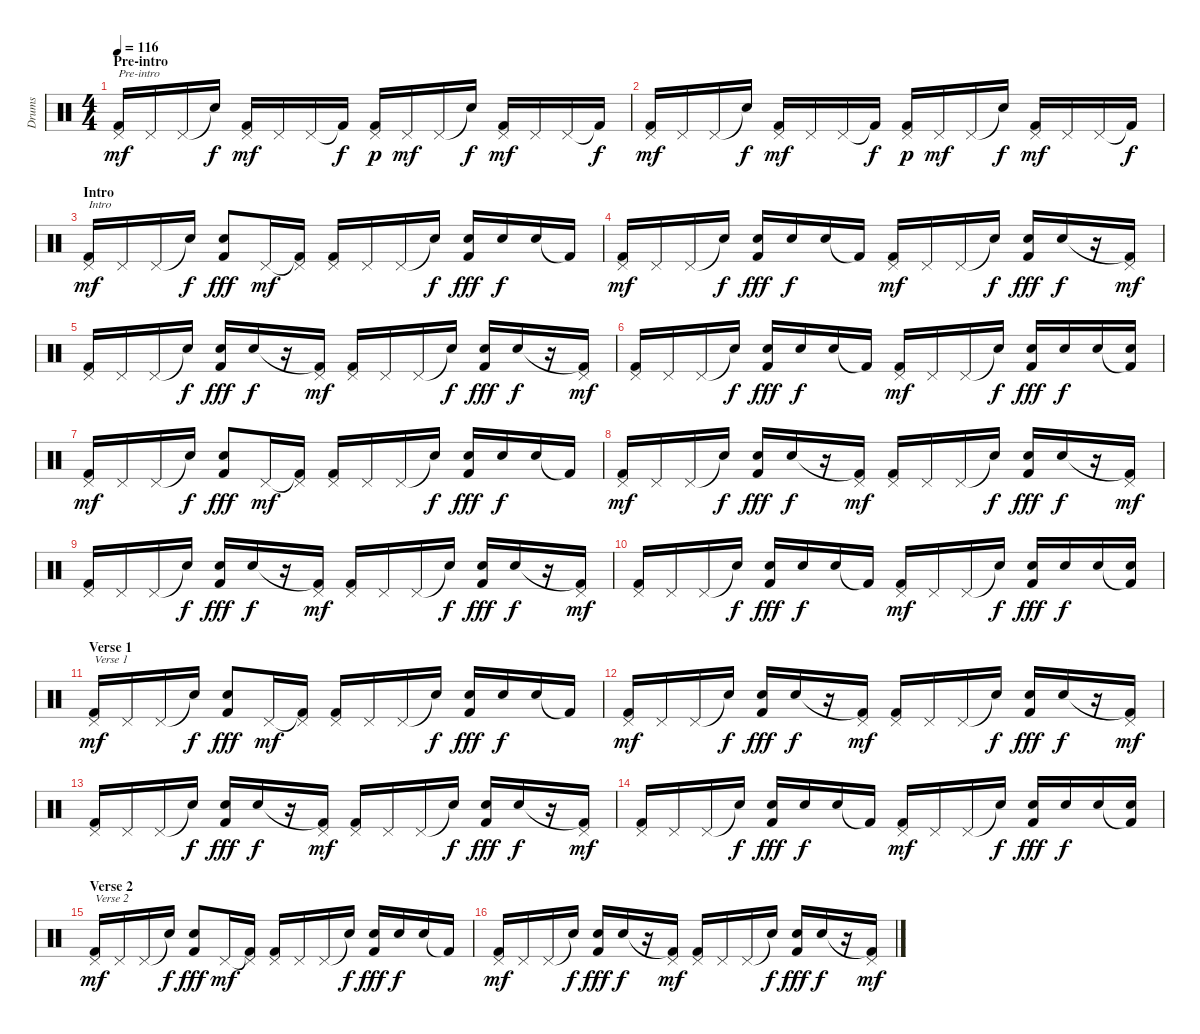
\track ("Drums" "Drums") {instrument percussion}
\staff {score}
\articulation defaults
\ts (4 4)
\section ("" "Pre-intro")
\tempo 116
\clef neutral
\ks c
("Kick (hit) 2" "Pedal Hi-Hat (hit)").16{txt "Pre-intro" dy mf} "Pedal Hi-Hat (hit)".16 "Pedal Hi-Hat (hit)".16 "Snare (hit)"{t}.16{dy f} ("Kick (hit) 2" "Pedal Hi-Hat (hit)").16{dy mf} "Pedal Hi-Hat (hit)".16 "Pedal Hi-Hat (hit)".16 "Kick (hit) 2"{t}.16{dy f} ("Kick (hit) 2" "Pedal Hi-Hat (hit)").16{dy p} "Pedal Hi-Hat (hit)".16{dy mf} "Pedal Hi-Hat (hit)".16 "Snare (hit)"{t}.16{dy f} ("Kick (hit) 2" "Pedal Hi-Hat (hit)").16{dy mf} "Pedal Hi-Hat (hit)".16 "Pedal Hi-Hat (hit)".16 "Kick (hit) 2"{t}.16{dy f} |
("Kick (hit) 2" "Pedal Hi-Hat (hit)").16{dy mf} "Pedal Hi-Hat (hit)".16 "Pedal Hi-Hat (hit)".16 "Snare (hit)"{t}.16{dy f} ("Kick (hit) 2" "Pedal Hi-Hat (hit)").16{dy mf} "Pedal Hi-Hat (hit)".16 "Pedal Hi-Hat (hit)".16 "Kick (hit) 2"{t}.16{dy f} ("Kick (hit) 2" "Pedal Hi-Hat (hit)").16{dy p} "Pedal Hi-Hat (hit)".16{dy mf} "Pedal Hi-Hat (hit)".16 "Snare (hit)"{t}.16{dy f} ("Kick (hit) 2" "Pedal Hi-Hat (hit)").16{dy mf} "Pedal Hi-Hat (hit)".16 "Pedal Hi-Hat (hit)".16 "Kick (hit) 2"{t}.16{dy f} |
\section ("" "Intro")
("Kick (hit) 2" "Pedal Hi-Hat (hit)").16{txt "Intro" dy mf} "Pedal Hi-Hat (hit)".16 "Pedal Hi-Hat (hit)".16 "Snare (hit)"{t}.16{dy f} ("Kick (hit) 2" "Electric Snare (hit)").8{dy fff} "Pedal Hi-Hat (hit)".16{dy mf} ("Kick (hit) 2"{t} "Pedal Hi-Hat (hit)").16 ("Kick (hit) 2" "Pedal Hi-Hat (hit)").16 "Pedal Hi-Hat (hit)".16 "Pedal Hi-Hat (hit)".16 "Snare (hit)"{t}.16{dy f} ("Kick (hit) 2" "Electric Snare (hit)").16{dy fff} "Electric Snare (hit)".16{dy f} "Electric Snare (hit)".16 "Kick (hit) 2"{t}.16 |
("Kick (hit) 2" "Pedal Hi-Hat (hit)").16{dy mf} "Pedal Hi-Hat (hit)".16 "Pedal Hi-Hat (hit)".16 "Snare (hit)"{t}.16{dy f} ("Kick (hit) 2" "Electric Snare (hit)").16{dy fff} "Electric Snare (hit)".16{dy f} "Electric Snare (hit)".16 "Kick (hit) 2"{t}.16 ("Kick (hit) 2" "Pedal Hi-Hat (hit)").16{dy mf} "Pedal Hi-Hat (hit)".16 "Pedal Hi-Hat (hit)".16 "Snare (hit)"{t}.16{dy f} ("Kick (hit) 2" "Electric Snare (hit)").16{dy fff} "Electric Snare (hit)".16{dy f} r.16 ("Kick (hit) 2"{t} "Pedal Hi-Hat (hit)").16{dy mf} |
("Kick (hit) 2" "Pedal Hi-Hat (hit)").16 "Pedal Hi-Hat (hit)".16 "Pedal Hi-Hat (hit)".16 "Snare (hit)"{t}.16{dy f} ("Kick (hit) 2" "Electric Snare (hit)").16{dy fff} "Electric Snare (hit)".16{dy f} r.16 ("Kick (hit) 2"{t} "Pedal Hi-Hat (hit)").16{dy mf} ("Kick (hit) 2" "Pedal Hi-Hat (hit)").16 "Pedal Hi-Hat (hit)".16 "Pedal Hi-Hat (hit)".16 "Snare (hit)"{t}.16{dy f} ("Kick (hit) 2" "Electric Snare (hit)").16{dy fff} "Electric Snare (hit)".16{dy f} r.16 ("Kick (hit) 2"{t} "Pedal Hi-Hat (hit)").16{dy mf} |
("Kick (hit) 2" "Pedal Hi-Hat (hit)").16 "Pedal Hi-Hat (hit)".16 "Pedal Hi-Hat (hit)".16 "Snare (hit)"{t}.16{dy f} ("Kick (hit) 2" "Electric Snare (hit)").16{dy fff} "Electric Snare (hit)".16{dy f} "Electric Snare (hit)".16 "Kick (hit) 2"{t}.16 ("Kick (hit) 2" "Pedal Hi-Hat (hit)").16{dy mf} "Pedal Hi-Hat (hit)".16 "Pedal Hi-Hat (hit)".16 "Snare (hit)"{t}.16{dy f} ("Kick (hit) 2" "Electric Snare (hit)").16{dy fff} "Electric Snare (hit)".16{dy f} "Electric Snare (hit)".16 ("Kick (hit) 2"{t} "Electric Snare (hit)").16 |
("Kick (hit) 2" "Pedal Hi-Hat (hit)").16{dy mf} "Pedal Hi-Hat (hit)".16 "Pedal Hi-Hat (hit)".16 "Snare (hit)"{t}.16{dy f} ("Kick (hit) 2" "Electric Snare (hit)").8{dy fff} "Pedal Hi-Hat (hit)".16{dy mf} ("Kick (hit) 2"{t} "Pedal Hi-Hat (hit)").16 ("Kick (hit) 2" "Pedal Hi-Hat (hit)").16 "Pedal Hi-Hat (hit)".16 "Pedal Hi-Hat (hit)".16 "Snare (hit)"{t}.16{dy f} ("Kick (hit) 2" "Electric Snare (hit)").16{dy fff} "Electric Snare (hit)".16{dy f} "Electric Snare (hit)".16 "Kick (hit) 2"{t}.16 |
("Kick (hit) 2" "Pedal Hi-Hat (hit)").16{dy mf} "Pedal Hi-Hat (hit)".16 "Pedal Hi-Hat (hit)".16 "Snare (hit)"{t}.16{dy f} ("Kick (hit) 2" "Electric Snare (hit)").16{dy fff} "Electric Snare (hit)".16{dy f} r.16 ("Kick (hit) 2"{t} "Pedal Hi-Hat (hit)").16{dy mf} ("Kick (hit) 2" "Pedal Hi-Hat (hit)").16 "Pedal Hi-Hat (hit)".16 "Pedal Hi-Hat (hit)".16 "Snare (hit)"{t}.16{dy f} ("Kick (hit) 2" "Electric Snare (hit)").16{dy fff} "Electric Snare (hit)".16{dy f} r.16 ("Kick (hit) 2"{t} "Pedal Hi-Hat (hit)").16{dy mf} |
("Kick (hit) 2" "Pedal Hi-Hat (hit)").16 "Pedal Hi-Hat (hit)".16 "Pedal Hi-Hat (hit)".16 "Snare (hit)"{t}.16{dy f} ("Kick (hit) 2" "Electric Snare (hit)").16{dy fff} "Electric Snare (hit)".16{dy f} r.16 ("Kick (hit) 2"{t} "Pedal Hi-Hat (hit)").16{dy mf} ("Kick (hit) 2" "Pedal Hi-Hat (hit)").16 "Pedal Hi-Hat (hit)".16 "Pedal Hi-Hat (hit)".16 "Snare (hit)"{t}.16{dy f} ("Kick (hit) 2" "Electric Snare (hit)").16{dy fff} "Electric Snare (hit)".16{dy f} r.16 ("Kick (hit) 2"{t} "Pedal Hi-Hat (hit)").16{dy mf} |
("Kick (hit) 2" "Pedal Hi-Hat (hit)").16 "Pedal Hi-Hat (hit)".16 "Pedal Hi-Hat (hit)".16 "Snare (hit)"{t}.16{dy f} ("Kick (hit) 2" "Electric Snare (hit)").16{dy fff} "Electric Snare (hit)".16{dy f} "Electric Snare (hit)".16 "Kick (hit) 2"{t}.16 ("Kick (hit) 2" "Pedal Hi-Hat (hit)").16{dy mf} "Pedal Hi-Hat (hit)".16 "Pedal Hi-Hat (hit)".16 "Snare (hit)"{t}.16{dy f} ("Kick (hit) 2" "Electric Snare (hit)").16{dy fff} "Electric Snare (hit)".16{dy f} "Electric Snare (hit)".16 ("Kick (hit) 2"{t} "Electric Snare (hit)").16 |
\section ("" "Verse 1")
("Kick (hit) 2" "Pedal Hi-Hat (hit)").16{txt "Verse 1" dy mf} "Pedal Hi-Hat (hit)".16 "Pedal Hi-Hat (hit)".16 "Snare (hit)"{t}.16{dy f} ("Kick (hit) 2" "Electric Snare (hit)").8{dy fff} "Pedal Hi-Hat (hit)".16{dy mf} ("Kick (hit) 2"{t} "Pedal Hi-Hat (hit)").16 ("Kick (hit) 2" "Pedal Hi-Hat (hit)").16 "Pedal Hi-Hat (hit)".16 "Pedal Hi-Hat (hit)".16 "Snare (hit)"{t}.16{dy f} ("Kick (hit) 2" "Electric Snare (hit)").16{dy fff} "Electric Snare (hit)".16{dy f} "Electric Snare (hit)".16 "Kick (hit) 2"{t}.16 |
("Kick (hit) 2" "Pedal Hi-Hat (hit)").16{dy mf} "Pedal Hi-Hat (hit)".16 "Pedal Hi-Hat (hit)".16 "Snare (hit)"{t}.16{dy f} ("Kick (hit) 2" "Electric Snare (hit)").16{dy fff} "Electric Snare (hit)".16{dy f} r.16 ("Kick (hit) 2"{t} "Pedal Hi-Hat (hit)").16{dy mf} ("Kick (hit) 2" "Pedal Hi-Hat (hit)").16 "Pedal Hi-Hat (hit)".16 "Pedal Hi-Hat (hit)".16 "Snare (hit)"{t}.16{dy f} ("Kick (hit) 2" "Electric Snare (hit)").16{dy fff} "Electric Snare (hit)".16{dy f} r.16 ("Kick (hit) 2"{t} "Pedal Hi-Hat (hit)").16{dy mf} |
("Kick (hit) 2" "Pedal Hi-Hat (hit)").16 "Pedal Hi-Hat (hit)".16 "Pedal Hi-Hat (hit)".16 "Snare (hit)"{t}.16{dy f} ("Kick (hit) 2" "Electric Snare (hit)").16{dy fff} "Electric Snare (hit)".16{dy f} r.16 ("Kick (hit) 2"{t} "Pedal Hi-Hat (hit)").16{dy mf} ("Kick (hit) 2" "Pedal Hi-Hat (hit)").16 "Pedal Hi-Hat (hit)".16 "Pedal Hi-Hat (hit)".16 "Snare (hit)"{t}.16{dy f} ("Kick (hit) 2" "Electric Snare (hit)").16{dy fff} "Electric Snare (hit)".16{dy f} r.16 ("Kick (hit) 2"{t} "Pedal Hi-Hat (hit)").16{dy mf} |
("Kick (hit) 2" "Pedal Hi-Hat (hit)").16 "Pedal Hi-Hat (hit)".16 "Pedal Hi-Hat (hit)".16 "Snare (hit)"{t}.16{dy f} ("Kick (hit) 2" "Electric Snare (hit)").16{dy fff} "Electric Snare (hit)".16{dy f} "Electric Snare (hit)".16 "Kick (hit) 2"{t}.16 ("Kick (hit) 2" "Pedal Hi-Hat (hit)").16{dy mf} "Pedal Hi-Hat (hit)".16 "Pedal Hi-Hat (hit)".16 "Snare (hit)"{t}.16{dy f} ("Kick (hit) 2" "Electric Snare (hit)").16{dy fff} "Electric Snare (hit)".16{dy f} "Electric Snare (hit)".16 ("Kick (hit) 2"{t} "Electric Snare (hit)").16 |
\section ("" "Verse 2")
("Kick (hit) 2" "Pedal Hi-Hat (hit)").16{txt "Verse 2" dy mf} "Pedal Hi-Hat (hit)".16 "Pedal Hi-Hat (hit)".16 "Snare (hit)"{t}.16{dy f} ("Kick (hit) 2" "Electric Snare (hit)").8{dy fff} "Pedal Hi-Hat (hit)".16{dy mf} ("Kick (hit) 2"{t} "Pedal Hi-Hat (hit)").16 ("Kick (hit) 2" "Pedal Hi-Hat (hit)").16 "Pedal Hi-Hat (hit)".16 "Pedal Hi-Hat (hit)".16 "Snare (hit)"{t}.16{dy f} ("Kick (hit) 2" "Electric Snare (hit)").16{dy fff} "Electric Snare (hit)".16{dy f} "Electric Snare (hit)".16 "Kick (hit) 2"{t}.16 |
("Kick (hit) 2" "Pedal Hi-Hat (hit)").16{dy mf} "Pedal Hi-Hat (hit)".16 "Pedal Hi-Hat (hit)".16 "Snare (hit)"{t}.16{dy f} ("Kick (hit) 2" "Electric Snare (hit)").16{dy fff} "Electric Snare (hit)".16{dy f} r.16 ("Kick (hit) 2"{t} "Pedal Hi-Hat (hit)").16{dy mf} ("Kick (hit) 2" "Pedal Hi-Hat (hit)").16 "Pedal Hi-Hat (hit)".16 "Pedal Hi-Hat (hit)".16 "Snare (hit)"{t}.16{dy f} ("Kick (hit) 2" "Electric Snare (hit)").16{dy fff} "Electric Snare (hit)".16{dy f} r.16 ("Kick (hit) 2"{t} "Pedal Hi-Hat (hit)").16{dy mf}
